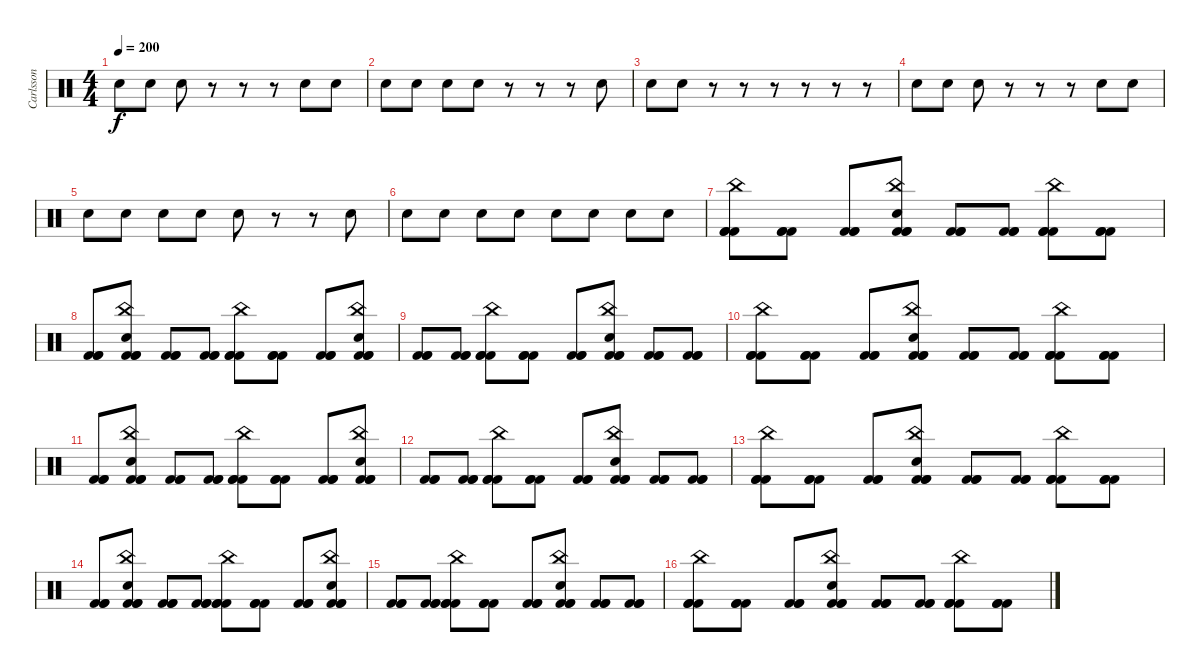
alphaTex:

\track ("Carlsson" "Carlsson") {instrument percussion}
\staff {score}
\articulation defaults
\ts (4 4)
\tempo 200
\clef neutral
\ks c "Snare (hit) 2".8{dy f} "Snare (hit) 2".8 "Snare (hit) 2".8
r.8 r.8 r.8 "Snare (hit) 2".8 "Snare (hit) 2".8 |
"Snare (hit) 2".8 "Snare (hit) 2".8 "Snare (hit) 2".8 "Snare (hit) 2".8 r.8 r.8 r.8 "Snare (hit) 2".8 |
"Snare (hit) 2".8 "Snare (hit) 2".8 r.8 r.8 r.8 r.8 r.8 r.8 |
"Snare (hit) 2".8 "Snare (hit) 2".8 "Snare (hit) 2".8 r.8 r.8 r.8 "Snare (hit) 2".8 "Snare (hit) 2".8 |
"Snare (hit) 2".8 "Snare (hit) 2".8 "Snare (hit) 2".8 "Snare (hit) 2".8 "Snare (hit) 2".8 r.8 r.8 "Snare (hit) 2".8 |
"Snare (hit) 2".8 "Snare (hit) 2".8 "Snare (hit) 2".8 "Snare (hit) 2".8 "Snare (hit) 2".8 "Snare (hit) 2".8 "Snare (hit) 2".8 "Snare (hit) 2".8 |
("China (hit)" "Kick (hit) 2" "Kick (hit) 2" "Kick (hit) 2").8 ("Kick (hit) 2" "Kick (hit) 2" "Kick (hit) 2").8 ("Kick (hit) 2" "Kick (hit) 2" "Kick (hit) 2").8 ("China (hit)" "Snare (hit) 2" "Kick (hit) 2" "Kick (hit) 2" "Kick (hit) 2").8 ("Kick (hit) 2" "Kick (hit) 2" "Kick (hit) 2").8 ("Kick (hit) 2" "Kick (hit) 2" "Kick (hit) 2").8 ("China (hit)" "Kick (hit) 2" "Kick (hit) 2" "Kick (hit) 2").8 ("Kick (hit) 2" "Kick (hit) 2" "Kick (hit) 2").8 |
("Kick (hit) 2" "Kick (hit) 2" "Kick (hit) 2").8 ("China (hit)" "Snare (hit) 2" "Kick (hit) 2" "Kick (hit) 2" "Kick (hit) 2").8 ("Kick (hit) 2" "Kick (hit) 2" "Kick (hit) 2").8 ("Kick (hit) 2" "Kick (hit) 2" "Kick (hit) 2").8 ("China (hit)" "Kick (hit) 2" "Kick (hit) 2" "Kick (hit) 2").8 ("Kick (hit) 2" "Kick (hit) 2" "Kick (hit) 2").8 ("Kick (hit) 2" "Kick (hit) 2" "Kick (hit) 2").8 ("China (hit)" "Snare (hit) 2" "Kick (hit) 2" "Kick (hit) 2" "Kick (hit) 2").8 |
("Kick (hit) 2" "Kick (hit) 2" "Kick (hit) 2").8 ("Kick (hit) 2" "Kick (hit) 2" "Kick (hit) 2").8 ("China (hit)" "Kick (hit) 2" "Kick (hit) 2" "Kick (hit) 2").8 ("Kick (hit) 2" "Kick (hit) 2" "Kick (hit) 2").8 ("Kick (hit) 2" "Kick (hit) 2" "Kick (hit) 2").8 ("China (hit)" "Snare (hit) 2" "Kick (hit) 2" "Kick (hit) 2" "Kick (hit) 2").8 ("Kick (hit) 2" "Kick (hit) 2" "Kick (hit) 2").8 ("Kick (hit) 2" "Kick (hit) 2" "Kick (hit) 2").8 |
("China (hit)" "Kick (hit) 2" "Kick (hit) 2" "Kick (hit) 2").8 ("Kick (hit) 2" "Kick (hit) 2" "Kick (hit) 2").8 ("Kick (hit) 2" "Kick (hit) 2" "Kick (hit) 2").8 ("China (hit)" "Snare (hit) 2" "Kick (hit) 2" "Kick (hit) 2" "Kick (hit) 2").8 ("Kick (hit) 2" "Kick (hit) 2" "Kick (hit) 2").8 ("Kick (hit) 2" "Kick (hit) 2" "Kick (hit) 2").8 ("China (hit)" "Kick (hit) 2" "Kick (hit) 2" "Kick (hit) 2").8 ("Kick (hit) 2" "Kick (hit) 2" "Kick (hit) 2").8 |
("Kick (hit) 2" "Kick (hit) 2" "Kick (hit) 2").8 ("China (hit)" "Snare (hit) 2" "Kick (hit) 2" "Kick (hit) 2" "Kick (hit) 2").8 ("Kick (hit) 2" "Kick (hit) 2" "Kick (hit) 2").8 ("Kick (hit) 2" "Kick (hit) 2" "Kick (hit) 2").8 ("China (hit)" "Kick (hit) 2" "Kick (hit) 2" "Kick (hit) 2").8 ("Kick (hit) 2" "Kick (hit) 2" "Kick (hit) 2").8 ("Kick (hit) 2" "Kick (hit) 2" "Kick (hit) 2").8 ("China (hit)" "Snare (hit) 2" "Kick (hit) 2" "Kick (hit) 2" "Kick (hit) 2").8 |
("Kick (hit) 2" "Kick (hit) 2" "Kick (hit) 2").8 ("Kick (hit) 2" "Kick (hit) 2" "Kick (hit) 2").8 ("China (hit)" "Kick (hit) 2" "Kick (hit) 2" "Kick (hit) 2").8 ("Kick (hit) 2" "Kick (hit) 2" "Kick (hit) 2").8 ("Kick (hit) 2" "Kick (hit) 2" "Kick (hit) 2").8 ("China (hit)" "Snare (hit) 2" "Kick (hit) 2" "Kick (hit) 2" "Kick (hit) 2").8 ("Kick (hit) 2" "Kick (hit) 2" "Kick (hit) 2").8 ("Kick (hit) 2" "Kick (hit) 2" "Kick (hit) 2").8 |
("China (hit)" "Kick (hit) 2" "Kick (hit) 2" "Kick (hit) 2").8 ("Kick (hit) 2" "Kick (hit) 2" "Kick (hit) 2").8 ("Kick (hit) 2" "Kick (hit) 2" "Kick (hit) 2").8 ("China (hit)" "Snare (hit) 2" "Kick (hit) 2" "Kick (hit) 2" "Kick (hit) 2").8 ("Kick (hit) 2" "Kick (hit) 2" "Kick (hit) 2").8 ("Kick (hit) 2" "Kick (hit) 2" "Kick (hit) 2").8 ("China (hit)" "Kick (hit) 2" "Kick (hit) 2" "Kick (hit) 2").8 ("Kick (hit) 2" "Kick (hit) 2" "Kick (hit) 2").8 |
("Kick (hit) 2" "Kick (hit) 2" "Kick (hit) 2").8 ("China (hit)" "Snare (hit) 2" "Kick (hit) 2" "Kick (hit) 2" "Kick (hit) 2").8 ("Kick (hit) 2" "Kick (hit) 2" "Kick (hit) 2").8 ("Kick (hit) 2" "Kick (hit) 2" "Kick (hit) 2").8 ("China (hit)" "Kick (hit) 2" "Kick (hit) 2" "Kick (hit) 2").8 ("Kick (hit) 2" "Kick (hit) 2" "Kick (hit) 2").8 ("Kick (hit) 2" "Kick (hit) 2" "Kick (hit) 2").8 ("China (hit)" "Snare (hit) 2" "Kick (hit) 2" "Kick (hit) 2" "Kick (hit) 2").8 |
("Kick (hit) 2" "Kick (hit) 2" "Kick (hit) 2").8 ("Kick (hit) 2" "Kick (hit) 2" "Kick (hit) 2").8 ("China (hit)" "Kick (hit) 2" "Kick (hit) 2" "Kick (hit) 2").8 ("Kick (hit) 2" "Kick (hit) 2" "Kick (hit) 2").8 ("Kick (hit) 2" "Kick (hit) 2" "Kick (hit) 2").8 ("China (hit)" "Snare (hit) 2" "Kick (hit) 2" "Kick (hit) 2" "Kick (hit) 2").8 ("Kick (hit) 2" "Kick (hit) 2" "Kick (hit) 2").8 ("Kick (hit) 2" "Kick (hit) 2" "Kick (hit) 2").8 |
("China (hit)" "Kick (hit) 2" "Kick (hit) 2" "Kick (hit) 2").8 ("Kick (hit) 2" "Kick (hit) 2" "Kick (hit) 2").8 ("Kick (hit) 2" "Kick (hit) 2" "Kick (hit) 2").8 ("China (hit)" "Snare (hit) 2" "Kick (hit) 2" "Kick (hit) 2" "Kick (hit) 2").8 ("Kick (hit) 2" "Kick (hit) 2" "Kick (hit) 2").8 ("Kick (hit) 2" "Kick (hit) 2" "Kick (hit) 2").8 ("China (hit)" "Kick (hit) 2" "Kick (hit) 2" "Kick (hit) 2").8 ("Kick (hit) 2" "Kick (hit) 2" "Kick (hit) 2").8
